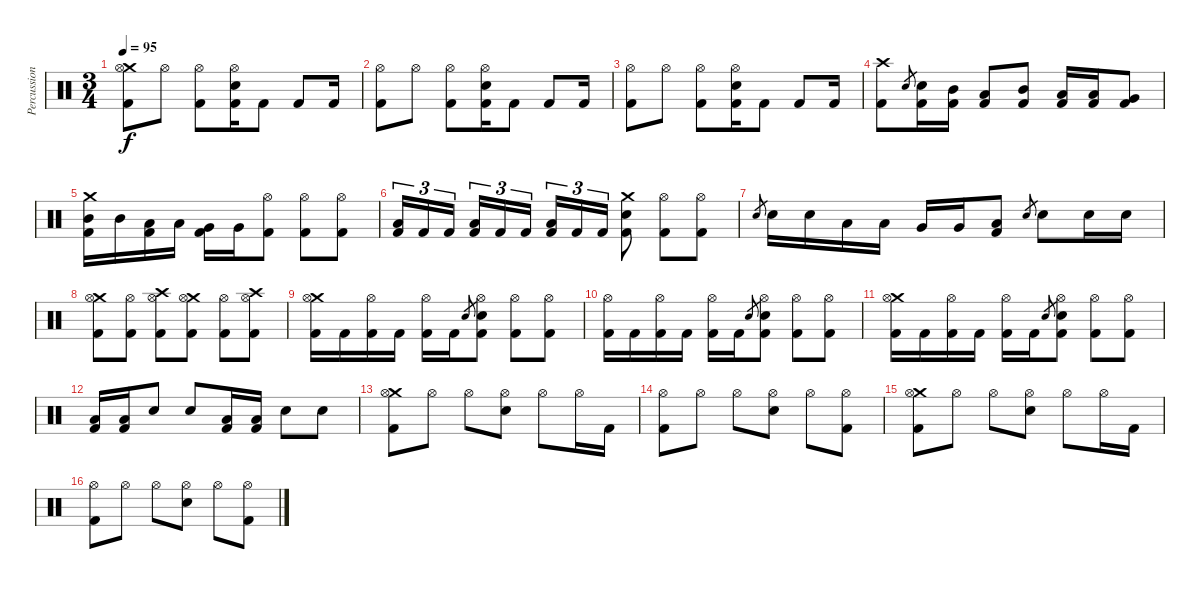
\track ("Percussion" "Percussion") {instrument percussion}
\staff {score}
\articulation defaults
\ts (3 4)
\tempo 95
\clef neutral
\ks c
("Crash medium (hit)" "Hi-Hat (open)" "Kick (hit) 2").8{dy f} "Hi-Hat (open)".8 ("Hi-Hat (open)" "Kick (hit) 2").8 ("Hi-Hat (open)" "Electric Snare (hit)" "Kick (hit) 2").16 "Kick (hit) 2".8 "Kick (hit) 2".8 "Kick (hit) 2".16 |
("Hi-Hat (open)" "Kick (hit) 2").8 "Hi-Hat (open)".8 ("Hi-Hat (open)" "Kick (hit) 2").8 ("Hi-Hat (open)" "Electric Snare (hit)" "Kick (hit) 2").16 "Kick (hit) 2".8 "Kick (hit) 2".8 "Kick (hit) 2".16 |
("Hi-Hat (open)" "Kick (hit) 2").8 "Hi-Hat (open)".8 ("Hi-Hat (open)" "Kick (hit) 2").8 ("Hi-Hat (open)" "Electric Snare (hit)" "Kick (hit) 2").16 "Kick (hit) 2".8 "Kick (hit) 2".8 "Kick (hit) 2".16 |
("Crash high (hit)" "Kick (hit) 2").8 "Electric Snare (hit)".8{gr} ("Electric Snare (hit)" "Kick (hit) 2").16 ("Mid Tom (hit)" "Kick (hit) 2").16 ("Low Tom (hit)" "Kick (hit) 2").8 ("Mid Tom (hit)" "Kick (hit) 2").8 ("Low Tom (hit)" "Kick (hit) 2").16 ("Low Tom (hit)" "Kick (hit) 2").16 ("Very Low Tom (hit)" "Kick (hit) 2").8 |
("Crash medium (hit)" "Mid Tom (hit)" "Kick (hit) 2").16 "Mid Tom (hit)".16 ("Low Tom (hit)" "Kick (hit) 2").16 "Low Tom (hit)".16 ("Very Low Tom (hit)" "Kick (hit) 2").16 "Very Low Tom (hit)".16 ("Hi-Hat (open)" "Kick (hit) 2").8 ("Hi-Hat (open)" "Kick (hit) 2").8 ("Hi-Hat (open)" "Kick (hit) 2").8 |
("Low Tom (hit)" "Kick (hit) 2").16{tu (3 2)} "Kick (hit) 2".16{tu (3 2)} "Kick (hit) 2".16{tu (3 2)} ("Low Tom (hit)" "Kick (hit) 2").16{tu (3 2)} "Kick (hit) 2".16{tu (3 2)} "Kick (hit) 2".16{tu (3 2)} ("Low Tom (hit)" "Kick (hit) 2").16{tu (3 2)} "Kick (hit) 2".16{tu (3 2)} "Kick (hit) 2".16{tu (3 2)} ("Crash medium (hit)" "Electric Snare (hit)" "Kick (hit) 2").8 ("Hi-Hat (open)" "Kick (hit) 2").8 ("Hi-Hat (open)" "Kick (hit) 2").8 |
"Electric Snare (hit)".8{gr} "Electric Snare (hit)".16 "Electric Snare (hit)".16 "Low Tom (hit)".16 "Low Tom (hit)".16 "Very Low Tom (hit)".16 "Very Low Tom (hit)".16 ("Low Floor Tom (hit)" "Kick (hit) 2").8 "Electric Snare (hit)".8{gr} "Electric Snare (hit)".8 "Electric Snare (hit)".16 "Electric Snare (hit)".16 |
("Crash medium (hit)" "Hi-Hat (open)" "Kick (hit) 2").8 ("Hi-Hat (open)" "Kick (hit) 2").8 ("Crash high (hit)" "Hi-Hat (open)" "Kick (hit) 2").8 ("Crash medium (hit)" "Hi-Hat (open)" "Kick (hit) 2").8 ("Hi-Hat (open)" "Kick (hit) 2").8 ("Crash high (hit)" "Hi-Hat (open)" "Kick (hit) 2").8 |
("Crash medium (hit)" "Hi-Hat (open)" "Kick (hit) 2").16 "Kick (hit) 2".16 ("Hi-Hat (open)" "Kick (hit) 2").16 "Kick (hit) 2".16 ("Hi-Hat (open)" "Kick (hit) 2").16 "Kick (hit) 2".16 "Electric Snare (hit)".8{gr} ("Hi-Hat (open)" "Electric Snare (hit)" "Kick (hit) 2").8 ("Hi-Hat (open)" "Kick (hit) 2").8 ("Hi-Hat (open)" "Kick (hit) 2").8 |
("Hi-Hat (open)" "Kick (hit) 2").16 "Kick (hit) 2".16 ("Hi-Hat (open)" "Kick (hit) 2").16 "Kick (hit) 2".16 ("Hi-Hat (open)" "Kick (hit) 2").16 "Kick (hit) 2".16 "Electric Snare (hit)".8{gr} ("Hi-Hat (open)" "Electric Snare (hit)" "Kick (hit) 2").8 ("Hi-Hat (open)" "Kick (hit) 2").8 ("Hi-Hat (open)" "Kick (hit) 2").8 |
("Crash medium (hit)" "Hi-Hat (open)" "Kick (hit) 2").16 "Kick (hit) 2".16 ("Hi-Hat (open)" "Kick (hit) 2").16 "Kick (hit) 2".16 ("Hi-Hat (open)" "Kick (hit) 2").16 "Kick (hit) 2".16 "Electric Snare (hit)".8{gr} ("Hi-Hat (open)" "Electric Snare (hit)" "Kick (hit) 2").8 ("Hi-Hat (open)" "Kick (hit) 2").8 ("Hi-Hat (open)" "Kick (hit) 2").8 |
("Low Tom (hit)" "Kick (hit) 2").16 ("Low Tom (hit)" "Kick (hit) 2").16 "Electric Snare (hit)".8 "Electric Snare (hit)".8 ("Low Tom (hit)" "Kick (hit) 2").16 ("Low Tom (hit)" "Kick (hit) 2").16 "Electric Snare (hit)".8 "Electric Snare (hit)".8 |
("Crash medium (hit)" "Hi-Hat (open)" "Kick (hit) 2").8 "Hi-Hat (open)".8 "Hi-Hat (open)".8 ("Hi-Hat (open)" "Electric Snare (hit)").8 "Hi-Hat (open)".8 "Hi-Hat (open)".16 "Kick (hit) 2".16 |
("Hi-Hat (open)" "Kick (hit) 2").8 "Hi-Hat (open)".8 "Hi-Hat (open)".8 ("Hi-Hat (open)" "Electric Snare (hit)").8 "Hi-Hat (open)".8 ("Hi-Hat (open)" "Kick (hit) 2").8 |
("Crash medium (hit)" "Hi-Hat (open)" "Kick (hit) 2").8 "Hi-Hat (open)".8 "Hi-Hat (open)".8 ("Hi-Hat (open)" "Electric Snare (hit)").8 "Hi-Hat (open)".8 "Hi-Hat (open)".16 "Kick (hit) 2".16 |
("Hi-Hat (open)" "Kick (hit) 2").8 "Hi-Hat (open)".8 "Hi-Hat (open)".8 ("Hi-Hat (open)" "Electric Snare (hit)").8 "Hi-Hat (open)".8 ("Hi-Hat (open)" "Kick (hit) 2").8
